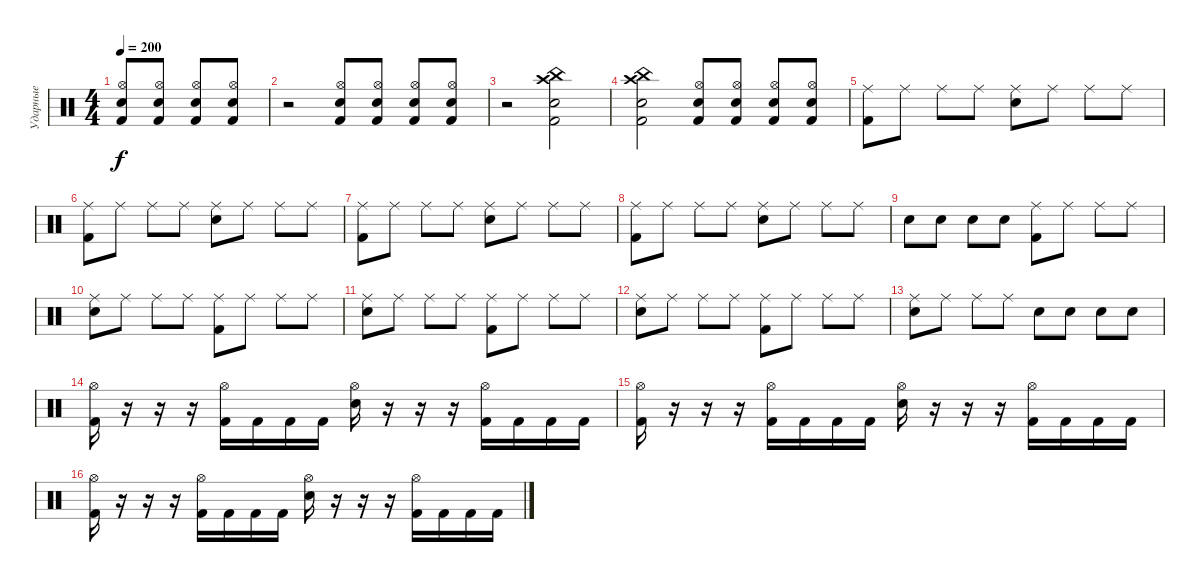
\track ("Ударные" "Ударные") {instrument percussion}
\staff {score}
\articulation defaults
\ts (4 4)
\tempo 200
\clef neutral
\ks c
("Kick (hit) 2" "Hi-Hat (open)" "Electric Snare (hit)").8{dy f} ("Hi-Hat (open)" "Kick (hit) 2" "Electric Snare (hit)").8 ("Electric Snare (hit)" "Kick (hit) 2" "Hi-Hat (open)").8 ("Hi-Hat (open)" "Kick (hit) 2" "Electric Snare (hit)").8 |
r.2 ("Electric Snare (hit)" "Kick (hit) 2" "Hi-Hat (open)").8 ("Hi-Hat (open)" "Kick (hit) 2" "Electric Snare (hit)").8 ("Electric Snare (hit)" "Kick (hit) 2" "Hi-Hat (open)").8 ("Hi-Hat (open)" "Kick (hit) 2" "Electric Snare (hit)").8 |
r.2 ("Kick (hit) 2" "Electric Snare (hit)" "Crash high (hit)" "China (hit)").2 |
("China (hit)" "Crash high (hit)" "Kick (hit) 2" "Electric Snare (hit)").2 ("Kick (hit) 2" "Electric Snare (hit)" "Hi-Hat (open)").8 ("Hi-Hat (open)" "Kick (hit) 2" "Electric Snare (hit)").8 ("Electric Snare (hit)" "Kick (hit) 2" "Hi-Hat (open)").8 ("Hi-Hat (open)" "Kick (hit) 2" "Electric Snare (hit)").8 |
("Kick (hit) 2" "Ride (middle)").8 "Ride (middle)".8 "Ride (middle)".8 "Ride (middle)".8 ("Electric Snare (hit)" "Ride (middle)").8 "Ride (middle)".8 "Ride (middle)".8 "Ride (middle)".8 |
("Kick (hit) 2" "Ride (middle)").8 "Ride (middle)".8 "Ride (middle)".8 "Ride (middle)".8 ("Electric Snare (hit)" "Ride (middle)").8 "Ride (middle)".8 "Ride (middle)".8 "Ride (middle)".8 |
("Kick (hit) 2" "Ride (middle)").8 "Ride (middle)".8 "Ride (middle)".8 "Ride (middle)".8 ("Electric Snare (hit)" "Ride (middle)").8 "Ride (middle)".8 "Ride (middle)".8 "Ride (middle)".8 |
("Kick (hit) 2" "Ride (middle)").8 "Ride (middle)".8 "Ride (middle)".8 "Ride (middle)".8 ("Electric Snare (hit)" "Ride (middle)").8 "Ride (middle)".8 "Ride (middle)".8 "Ride (middle)".8 |
"Electric Snare (hit)".8 "Electric Snare (hit)".8 "Electric Snare (hit)".8 "Electric Snare (hit)".8 ("Kick (hit) 2" "Ride (middle)").8 "Ride (middle)".8 "Ride (middle)".8 "Ride (middle)".8 |
("Electric Snare (hit)" "Ride (middle)").8 "Ride (middle)".8 "Ride (middle)".8 "Ride (middle)".8 ("Kick (hit) 2" "Ride (middle)").8 "Ride (middle)".8 "Ride (middle)".8 "Ride (middle)".8 |
("Electric Snare (hit)" "Ride (middle)").8 "Ride (middle)".8 "Ride (middle)".8 "Ride (middle)".8 ("Kick (hit) 2" "Ride (middle)").8 "Ride (middle)".8 "Ride (middle)".8 "Ride (middle)".8 |
("Electric Snare (hit)" "Ride (middle)").8 "Ride (middle)".8 "Ride (middle)".8 "Ride (middle)".8 ("Kick (hit) 2" "Ride (middle)").8 "Ride (middle)".8 "Ride (middle)".8 "Ride (middle)".8 |
("Electric Snare (hit)" "Ride (middle)").8 "Ride (middle)".8 "Ride (middle)".8 "Ride (middle)".8 "Electric Snare (hit)".8 "Electric Snare (hit)".8 "Electric Snare (hit)".8 "Electric Snare (hit)".8 |
("Kick (hit) 2" "Hi-Hat (open)").16 r.16 r.16 r.16 ("Kick (hit) 2" "Hi-Hat (open)").16 "Kick (hit) 2".16 "Kick (hit) 2".16 "Kick (hit) 2".16 ("Electric Snare (hit)" "Hi-Hat (open)").16 r.16 r.16 r.16 ("Kick (hit) 2" "Hi-Hat (open)").16 "Kick (hit) 2".16 "Kick (hit) 2".16 "Kick (hit) 2".16 |
("Kick (hit) 2" "Hi-Hat (open)").16 r.16 r.16 r.16 ("Kick (hit) 2" "Hi-Hat (open)").16 "Kick (hit) 2".16 "Kick (hit) 2".16 "Kick (hit) 2".16 ("Electric Snare (hit)" "Hi-Hat (open)").16 r.16 r.16 r.16 ("Kick (hit) 2" "Hi-Hat (open)").16 "Kick (hit) 2".16 "Kick (hit) 2".16 "Kick (hit) 2".16 |
("Kick (hit) 2" "Hi-Hat (open)").16 r.16 r.16 r.16 ("Kick (hit) 2" "Hi-Hat (open)").16 "Kick (hit) 2".16 "Kick (hit) 2".16 "Kick (hit) 2".16 ("Electric Snare (hit)" "Hi-Hat (open)").16 r.16 r.16 r.16 ("Kick (hit) 2" "Hi-Hat (open)").16 "Kick (hit) 2".16 "Kick (hit) 2".16 "Kick (hit) 2".16
